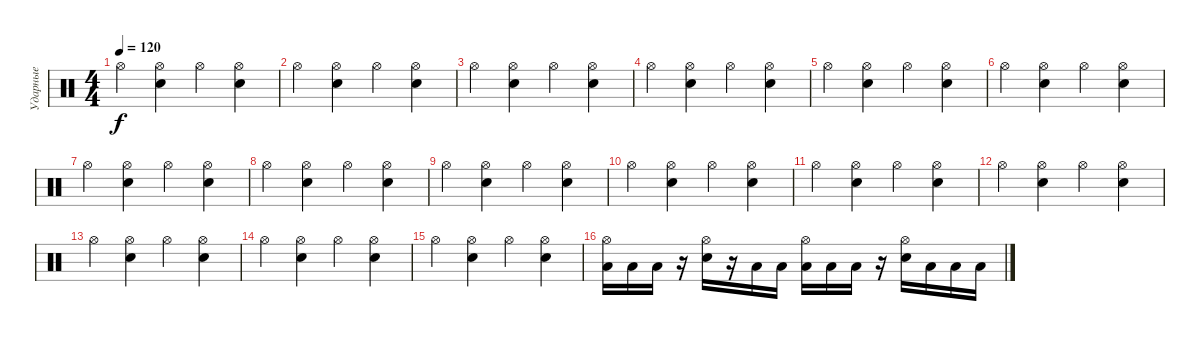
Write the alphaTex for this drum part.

\track ("Ударные" "Ударные") {instrument percussion}
\staff {score}
\articulation defaults
\ts (4 4)
\tempo 120
\clef neutral
\ks c "Hi-Hat (open)".4{dy f}
("Hi-Hat (open)" "Snare (hit) 2").4 "Hi-Hat (open)".4 ("Hi-Hat (open)" "Snare (hit) 2").4 |
"Hi-Hat (open)".4 ("Hi-Hat (open)" "Snare (hit) 2").4 "Hi-Hat (open)".4 ("Hi-Hat (open)" "Snare (hit) 2").4 |
"Hi-Hat (open)".4 ("Hi-Hat (open)" "Snare (hit) 2").4 "Hi-Hat (open)".4 ("Hi-Hat (open)" "Snare (hit) 2").4 |
"Hi-Hat (open)".4 ("Hi-Hat (open)" "Snare (hit) 2").4 "Hi-Hat (open)".4 ("Hi-Hat (open)" "Snare (hit) 2").4 |
"Hi-Hat (open)".4 ("Hi-Hat (open)" "Snare (hit) 2").4 "Hi-Hat (open)".4 ("Hi-Hat (open)" "Snare (hit) 2").4 |
"Hi-Hat (open)".4 ("Hi-Hat (open)" "Snare (hit) 2").4 "Hi-Hat (open)".4 ("Hi-Hat (open)" "Snare (hit) 2").4 |
"Hi-Hat (open)".4 ("Hi-Hat (open)" "Snare (hit) 2").4 "Hi-Hat (open)".4 ("Hi-Hat (open)" "Snare (hit) 2").4 |
"Hi-Hat (open)".4 ("Hi-Hat (open)" "Snare (hit) 2").4 "Hi-Hat (open)".4 ("Hi-Hat (open)" "Snare (hit) 2").4 |
"Hi-Hat (open)".4 ("Hi-Hat (open)" "Snare (hit) 2").4 "Hi-Hat (open)".4 ("Hi-Hat (open)" "Snare (hit) 2").4 |
"Hi-Hat (open)".4 ("Hi-Hat (open)" "Snare (hit) 2").4 "Hi-Hat (open)".4 ("Hi-Hat (open)" "Snare (hit) 2").4 |
"Hi-Hat (open)".4 ("Hi-Hat (open)" "Snare (hit) 2").4 "Hi-Hat (open)".4 ("Hi-Hat (open)" "Snare (hit) 2").4 |
"Hi-Hat (open)".4 ("Hi-Hat (open)" "Snare (hit) 2").4 "Hi-Hat (open)".4 ("Hi-Hat (open)" "Snare (hit) 2").4 |
"Hi-Hat (open)".4 ("Hi-Hat (open)" "Snare (hit) 2").4 "Hi-Hat (open)".4 ("Hi-Hat (open)" "Snare (hit) 2").4 |
"Hi-Hat (open)".4 ("Hi-Hat (open)" "Snare (hit) 2").4 "Hi-Hat (open)".4 ("Hi-Hat (open)" "Snare (hit) 2").4 |
"Hi-Hat (open)".4 ("Hi-Hat (open)" "Snare (hit) 2").4 "Hi-Hat (open)".4 ("Hi-Hat (open)" "Snare (hit) 2").4 |
("Hi-Hat (open)" "Low Tom (hit)").16 "Low Tom (hit)".16 "Low Tom (hit)".16 r.16 ("Hi-Hat (open)" "Snare (hit) 2").16 r.16 "Low Tom (hit)".16 "Low Tom (hit)".16 ("Hi-Hat (open)" "Low Tom (hit)").16 "Low Tom (hit)".16 "Low Tom (hit)".16 r.16 ("Hi-Hat (open)" "Snare (hit) 2").16 "Low Tom (hit)".16 "Low Tom (hit)".16 "Low Tom (hit)".16
